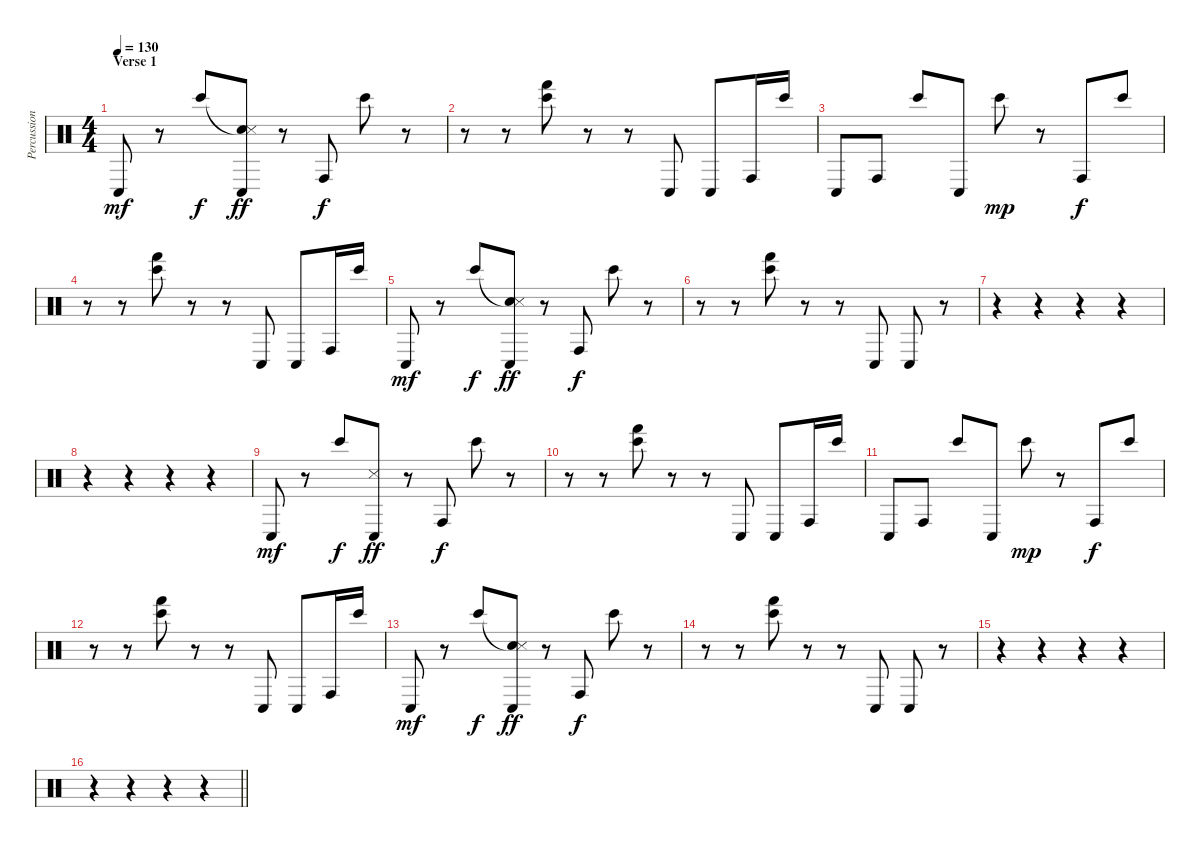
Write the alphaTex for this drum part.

\track ("Percussions (Roger Vasquez)" "Percussion") {instrument percussion}
\staff {score}
\articulation defaults
\ts (4 4)
\section ("" "Verse 1")
\tempo 130
\clef neutral
\ks c "Conga low (hit)".8{dy mf}
r.8 "Bongo High (hit)".8{dy f} ("Snare (hit)"{t} "Snare (side stick) 3" "Conga low (hit)").8{dy ff} r.8 "Conga high (hit)".8{dy f} "Bongo High (hit)".8 r.8 |
r.8 r.8 ("Bongo High (hit)" "Hand (hit)").8 r.8 r.8 "Conga low (hit)".8 "Conga low (hit)".8 "Conga high (hit)".16 "Bongo High (hit)".16 |
"Conga low (hit)".8 "Conga high (hit)".8 "Bongo High (hit)".8 "Conga low (hit)".8 "Bongo High (hit)".8{dy mp} r.8 "Conga high (hit)".8{dy f} "Bongo High (hit)".8 |
r.8 r.8 ("Bongo High (hit)" "Hand (hit)").8 r.8 r.8 "Conga low (hit)".8 "Conga low (hit)".8 "Conga high (hit)".16 "Bongo High (hit)".16 |
"Conga low (hit)".8{dy mf} r.8 "Bongo High (hit)".8{dy f} ("Snare (hit)"{t} "Snare (side stick) 3" "Conga low (hit)").8{dy ff} r.8 "Conga high (hit)".8{dy f} "Bongo High (hit)".8 r.8 |
r.8 r.8 ("Bongo High (hit)" "Hand (hit)").8 r.8 r.8 "Conga low (hit)".8 "Conga low (hit)".8 r.8 |
r.4 r.4 r.4 r.4 |
r.4 r.4 r.4 r.4 |
"Conga low (hit)".8{dy mf} r.8 "Bongo High (hit)".8{dy f} ("Snare (side stick) 3" "Conga low (hit)").8{dy ff} r.8 "Conga high (hit)".8{dy f} "Bongo High (hit)".8 r.8 |
r.8 r.8 ("Bongo High (hit)" "Hand (hit)").8 r.8 r.8 "Conga low (hit)".8 "Conga low (hit)".8 "Conga high (hit)".16 "Bongo High (hit)".16 |
"Conga low (hit)".8 "Conga high (hit)".8 "Bongo High (hit)".8 "Conga low (hit)".8 "Bongo High (hit)".8{dy mp} r.8 "Conga high (hit)".8{dy f} "Bongo High (hit)".8 |
r.8 r.8 ("Bongo High (hit)" "Hand (hit)").8 r.8 r.8 "Conga low (hit)".8 "Conga low (hit)".8 "Conga high (hit)".16 "Bongo High (hit)".16 |
"Conga low (hit)".8{dy mf} r.8 "Bongo High (hit)".8{dy f} ("Snare (hit)"{t} "Snare (side stick) 3" "Conga low (hit)").8{dy ff} r.8 "Conga high (hit)".8{dy f} "Bongo High (hit)".8 r.8 |
r.8 r.8 ("Bongo High (hit)" "Hand (hit)").8 r.8 r.8 "Conga low (hit)".8 "Conga low (hit)".8 r.8 |
r.4 r.4 r.4 r.4 |
\barLineRight lightlight
r.4 r.4 r.4 r.4
